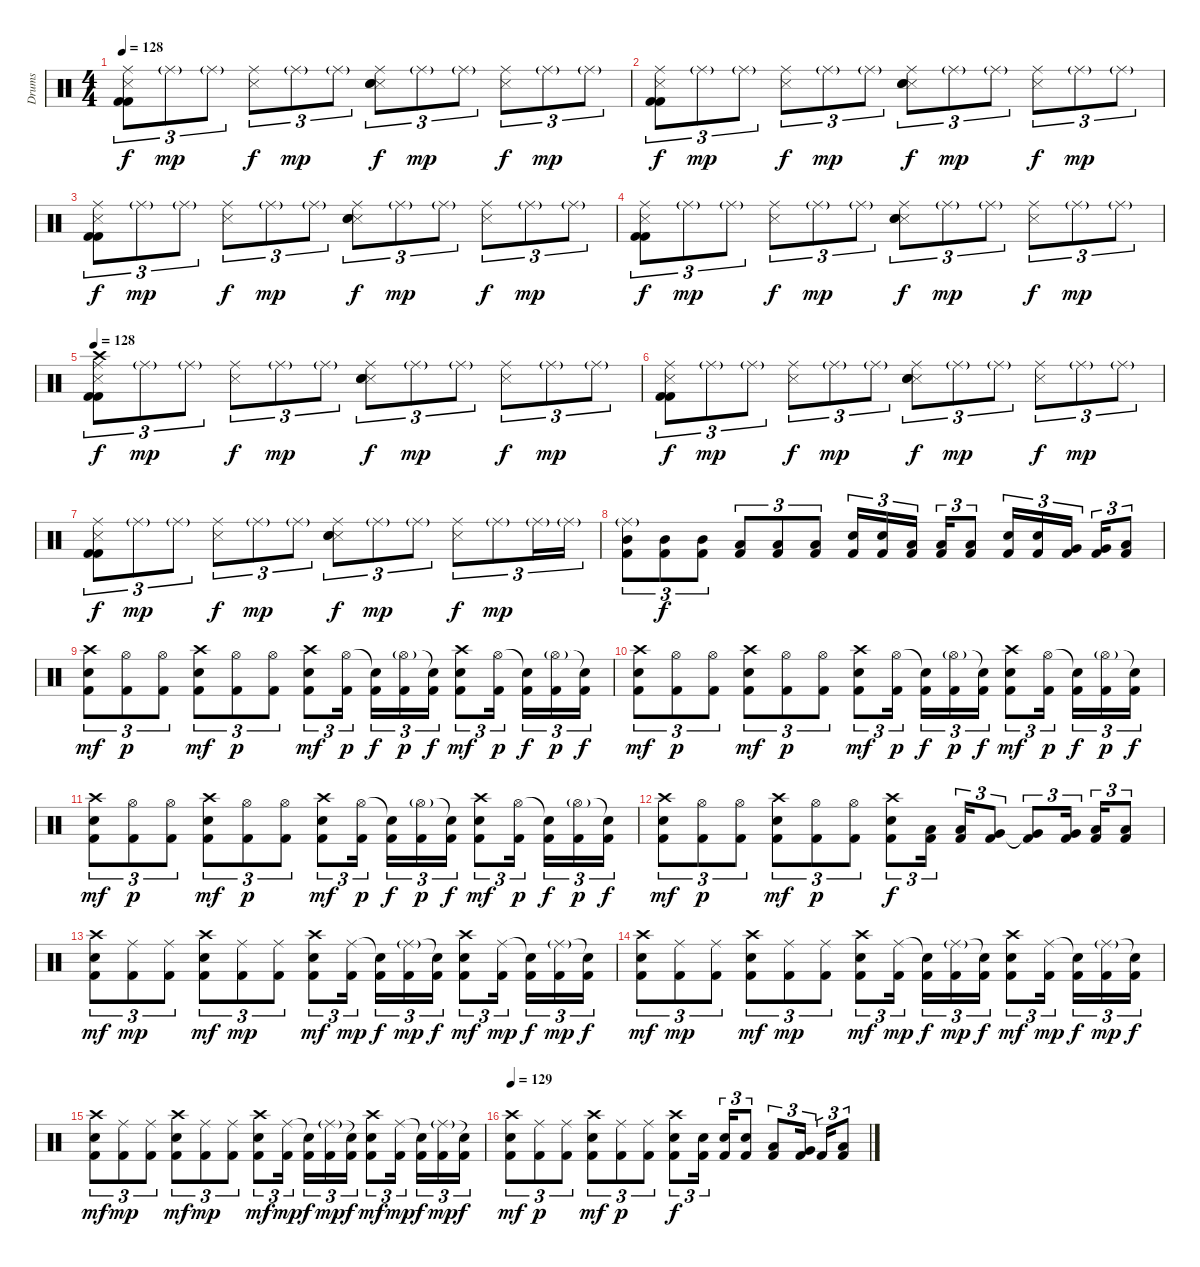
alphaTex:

\track ("Drums" "Drums") {instrument percussion}
\staff {score}
\articulation defaults
\ts (4 4)
\tempo 128
\clef neutral
\ks c
("Ride (middle)" "Metronome (hit)" "Kick (hit) 2" "Kick (hit) 2").8{tu (3 2) dy f} "Ride (middle)"{g}.8{tu (3 2) dy mp} "Ride (middle)"{g}.8{tu (3 2)} ("Ride (middle)" "Metronome (hit)").8{tu (3 2) dy f} "Ride (middle)"{g}.8{tu (3 2) dy mp} "Ride (middle)"{g}.8{tu (3 2)} ("Ride (middle)" "Metronome (hit)" "Electric Snare (hit)" "Snare (hit) 2").8{tu (3 2) dy f} "Ride (middle)"{g}.8{tu (3 2) dy mp} "Ride (middle)"{g}.8{tu (3 2)} ("Ride (middle)" "Metronome (hit)").8{tu (3 2) dy f} "Ride (middle)"{g}.8{tu (3 2) dy mp} "Ride (middle)"{g}.8{tu (3 2)} |
("Ride (middle)" "Metronome (hit)" "Kick (hit) 2" "Kick (hit) 2").8{tu (3 2) dy f} "Ride (middle)"{g}.8{tu (3 2) dy mp} "Ride (middle)"{g}.8{tu (3 2)} ("Ride (middle)" "Metronome (hit)").8{tu (3 2) dy f} "Ride (middle)"{g}.8{tu (3 2) dy mp} "Ride (middle)"{g}.8{tu (3 2)} ("Ride (middle)" "Metronome (hit)" "Electric Snare (hit)" "Snare (hit) 2").8{tu (3 2) dy f} "Ride (middle)"{g}.8{tu (3 2) dy mp} "Ride (middle)"{g}.8{tu (3 2)} ("Ride (middle)" "Metronome (hit)").8{tu (3 2) dy f} "Ride (middle)"{g}.8{tu (3 2) dy mp} "Ride (middle)"{g}.8{tu (3 2)} |
("Ride (middle)" "Metronome (hit)" "Kick (hit) 2" "Kick (hit) 2").8{tu (3 2) dy f} "Ride (middle)"{g}.8{tu (3 2) dy mp} "Ride (middle)"{g}.8{tu (3 2)} ("Ride (middle)" "Metronome (hit)").8{tu (3 2) dy f} "Ride (middle)"{g}.8{tu (3 2) dy mp} "Ride (middle)"{g}.8{tu (3 2)} ("Ride (middle)" "Metronome (hit)" "Electric Snare (hit)" "Snare (hit) 2").8{tu (3 2) dy f} "Ride (middle)"{g}.8{tu (3 2) dy mp} "Ride (middle)"{g}.8{tu (3 2)} ("Ride (middle)" "Metronome (hit)").8{tu (3 2) dy f} "Ride (middle)"{g}.8{tu (3 2) dy mp} "Ride (middle)"{g}.8{tu (3 2)} |
("Ride (middle)" "Metronome (hit)" "Kick (hit) 2" "Kick (hit) 2").8{tu (3 2) dy f} "Ride (middle)"{g}.8{tu (3 2) dy mp} "Ride (middle)"{g}.8{tu (3 2)} ("Ride (middle)" "Metronome (hit)").8{tu (3 2) dy f} "Ride (middle)"{g}.8{tu (3 2) dy mp} "Ride (middle)"{g}.8{tu (3 2)} ("Ride (middle)" "Metronome (hit)" "Electric Snare (hit)" "Snare (hit) 2").8{tu (3 2) dy f} "Ride (middle)"{g}.8{tu (3 2) dy mp} "Ride (middle)"{g}.8{tu (3 2)} ("Ride (middle)" "Metronome (hit)").8{tu (3 2) dy f} "Ride (middle)"{g}.8{tu (3 2) dy mp} "Ride (middle)"{g}.8{tu (3 2)} |
\tempo 128
("Crash high (hit)" "Ride (middle)" "Metronome (hit)" "Kick (hit) 2" "Kick (hit) 2").8{tu (3 2) dy f} "Ride (middle)"{g}.8{tu (3 2) dy mp} "Ride (middle)"{g}.8{tu (3 2)} ("Ride (middle)" "Metronome (hit)").8{tu (3 2) dy f} "Ride (middle)"{g}.8{tu (3 2) dy mp} "Ride (middle)"{g}.8{tu (3 2)} ("Ride (middle)" "Metronome (hit)" "Electric Snare (hit)" "Snare (hit) 2").8{tu (3 2) dy f} "Ride (middle)"{g}.8{tu (3 2) dy mp} "Ride (middle)"{g}.8{tu (3 2)} ("Ride (middle)" "Metronome (hit)").8{tu (3 2) dy f} "Ride (middle)"{g}.8{tu (3 2) dy mp} "Ride (middle)"{g}.8{tu (3 2)} |
("Ride (middle)" "Metronome (hit)" "Kick (hit) 2" "Kick (hit) 2").8{tu (3 2) dy f} "Ride (middle)"{g}.8{tu (3 2) dy mp} "Ride (middle)"{g}.8{tu (3 2)} ("Ride (middle)" "Metronome (hit)").8{tu (3 2) dy f} "Ride (middle)"{g}.8{tu (3 2) dy mp} "Ride (middle)"{g}.8{tu (3 2)} ("Ride (middle)" "Metronome (hit)" "Electric Snare (hit)" "Snare (hit) 2").8{tu (3 2) dy f} "Ride (middle)"{g}.8{tu (3 2) dy mp} "Ride (middle)"{g}.8{tu (3 2)} ("Ride (middle)" "Metronome (hit)").8{tu (3 2) dy f} "Ride (middle)"{g}.8{tu (3 2) dy mp} "Ride (middle)"{g}.8{tu (3 2)} |
("Ride (middle)" "Metronome (hit)" "Kick (hit) 2" "Kick (hit) 2").8{tu (3 2) dy f} "Ride (middle)"{g}.8{tu (3 2) dy mp} "Ride (middle)"{g}.8{tu (3 2)} ("Ride (middle)" "Metronome (hit)").8{tu (3 2) dy f} "Ride (middle)"{g}.8{tu (3 2) dy mp} "Ride (middle)"{g}.8{tu (3 2)} ("Ride (middle)" "Metronome (hit)" "Electric Snare (hit)" "Snare (hit) 2").8{tu (3 2) dy f} "Ride (middle)"{g}.8{tu (3 2) dy mp} "Ride (middle)"{g}.8{tu (3 2)} ("Ride (middle)" "Metronome (hit)").8{tu (3 2) dy f} "Ride (middle)"{g}.8{tu (3 2) dy mp} "Ride (middle)"{g}.16{tu (3 2)} "Ride (middle)"{g}.16{tu (3 2)} |
("Ride (middle)"{g} "Mid Tom (hit)" "Kick (hit) 2").8{tu (3 2)} ("Mid Tom (hit)" "Kick (hit) 2").8{tu (3 2) dy f} ("Mid Tom (hit)" "Kick (hit) 2").8{tu (3 2)} ("Low Tom (hit)" "Kick (hit) 2").8{tu (3 2)} ("Low Tom (hit)" "Kick (hit) 2").8{tu (3 2)} ("Low Tom (hit)" "Kick (hit) 2").8{tu (3 2)} ("Snare (hit) 2" "Kick (hit) 2").16{tu (3 2)} ("Snare (hit) 2" "Kick (hit) 2").16{tu (3 2)} ("Low Tom (hit)" "Kick (hit) 2").16{tu (3 2)} ("Low Tom (hit)" "Kick (hit) 2").16{tu (3 2)} ("Low Tom (hit)" "Kick (hit) 2").8{tu (3 2)} ("Snare (hit) 2" "Kick (hit) 2").16{tu (3 2)} ("Snare (hit) 2" "Kick (hit) 2").16{tu (3 2)} ("Very Low Tom (hit)" "Kick (hit) 2").16{tu (3 2)} ("Very Low Tom (hit)" "Kick (hit) 2").16{tu (3 2)} ("Low Floor Tom (hit)" "Kick (hit) 2").8{tu (3 2)} |
("Crash high (hit)" "Snare (hit) 2" "Kick (hit) 2").8{tu (3 2) dy mf} ("Hi-Hat (open)" "Kick (hit) 2").8{tu (3 2) dy p} ("Hi-Hat (open)" "Kick (hit) 2").8{tu (3 2)} ("Crash high (hit)" "Snare (hit) 2" "Kick (hit) 2").8{tu (3 2) dy mf} ("Hi-Hat (open)" "Kick (hit) 2").8{tu (3 2) dy p} ("Hi-Hat (open)" "Kick (hit) 2").8{tu (3 2)} ("Crash high (hit)" "Snare (hit) 2" "Kick (hit) 2").8{tu (3 2) dy mf} ("Hi-Hat (open)" "Kick (hit) 2").16{tu (3 2) dy p} ("Snare (hit)"{t} "Kick (hit) 2").16{tu (3 2) dy f} ("Hi-Hat (open)"{g} "Kick (hit) 2").16{tu (3 2) dy p} ("Snare (hit)"{t} "Kick (hit) 2").16{tu (3 2) dy f} ("Crash high (hit)" "Snare (hit) 2" "Kick (hit) 2").8{tu (3 2) dy mf} ("Hi-Hat (open)" "Kick (hit) 2").16{tu (3 2) dy p} ("Snare (hit)"{t} "Kick (hit) 2").16{tu (3 2) dy f} ("Hi-Hat (open)"{g} "Kick (hit) 2").16{tu (3 2) dy p} ("Snare (hit)"{t} "Kick (hit) 2").16{tu (3 2) dy f} |
("Crash high (hit)" "Snare (hit) 2" "Kick (hit) 2").8{tu (3 2) dy mf} ("Hi-Hat (open)" "Kick (hit) 2").8{tu (3 2) dy p} ("Hi-Hat (open)" "Kick (hit) 2").8{tu (3 2)} ("Crash high (hit)" "Snare (hit) 2" "Kick (hit) 2").8{tu (3 2) dy mf} ("Hi-Hat (open)" "Kick (hit) 2").8{tu (3 2) dy p} ("Hi-Hat (open)" "Kick (hit) 2").8{tu (3 2)} ("Crash high (hit)" "Snare (hit) 2" "Kick (hit) 2").8{tu (3 2) dy mf} ("Hi-Hat (open)" "Kick (hit) 2").16{tu (3 2) dy p} ("Snare (hit)"{t} "Kick (hit) 2").16{tu (3 2) dy f} ("Hi-Hat (open)"{g} "Kick (hit) 2").16{tu (3 2) dy p} ("Snare (hit)"{t} "Kick (hit) 2").16{tu (3 2) dy f} ("Crash high (hit)" "Snare (hit) 2" "Kick (hit) 2").8{tu (3 2) dy mf} ("Hi-Hat (open)" "Kick (hit) 2").16{tu (3 2) dy p} ("Snare (hit)"{t} "Kick (hit) 2").16{tu (3 2) dy f} ("Hi-Hat (open)"{g} "Kick (hit) 2").16{tu (3 2) dy p} ("Snare (hit)"{t} "Kick (hit) 2").16{tu (3 2) dy f} |
("Crash high (hit)" "Snare (hit) 2" "Kick (hit) 2").8{tu (3 2) dy mf} ("Hi-Hat (open)" "Kick (hit) 2").8{tu (3 2) dy p} ("Hi-Hat (open)" "Kick (hit) 2").8{tu (3 2)} ("Crash high (hit)" "Snare (hit) 2" "Kick (hit) 2").8{tu (3 2) dy mf} ("Hi-Hat (open)" "Kick (hit) 2").8{tu (3 2) dy p} ("Hi-Hat (open)" "Kick (hit) 2").8{tu (3 2)} ("Crash high (hit)" "Snare (hit) 2" "Kick (hit) 2").8{tu (3 2) dy mf} ("Hi-Hat (open)" "Kick (hit) 2").16{tu (3 2) dy p} ("Snare (hit)"{t} "Kick (hit) 2").16{tu (3 2) dy f} ("Hi-Hat (open)"{g} "Kick (hit) 2").16{tu (3 2) dy p} ("Snare (hit)"{t} "Kick (hit) 2").16{tu (3 2) dy f} ("Crash high (hit)" "Snare (hit) 2" "Kick (hit) 2").8{tu (3 2) dy mf} ("Hi-Hat (open)" "Kick (hit) 2").16{tu (3 2) dy p} ("Snare (hit)"{t} "Kick (hit) 2").16{tu (3 2) dy f} ("Hi-Hat (open)"{g} "Kick (hit) 2").16{tu (3 2) dy p} ("Snare (hit)"{t} "Kick (hit) 2").16{tu (3 2) dy f} |
("Crash high (hit)" "Snare (hit) 2" "Kick (hit) 2").8{tu (3 2) dy mf} ("Hi-Hat (open)" "Kick (hit) 2").8{tu (3 2) dy p} ("Hi-Hat (open)" "Kick (hit) 2").8{tu (3 2)} ("Crash high (hit)" "Snare (hit) 2" "Kick (hit) 2").8{tu (3 2) dy mf} ("Hi-Hat (open)" "Kick (hit) 2").8{tu (3 2) dy p} ("Hi-Hat (open)" "Kick (hit) 2").8{tu (3 2)} ("Crash high (hit)" "Snare (hit) 2" "Kick (hit) 2").8{tu (3 2) dy f} ("Low Tom (hit)" "Kick (hit) 2").16{tu (3 2)} ("Low Tom (hit)" "Kick (hit) 2").16{tu (3 2)} ("Very Low Tom (hit)" "Kick (hit) 2").8{tu (3 2)} ("Very Low Tom (hit)"{t} "Kick (hit) 2").8{tu (3 2)} ("Very Low Tom (hit)" "Kick (hit) 2").16{tu (3 2)} ("Low Floor Tom (hit)" "Kick (hit) 2").16{tu (3 2)} ("Low Floor Tom (hit)" "Kick (hit) 2").8{tu (3 2)} |
("Crash high (hit)" "Snare (hit) 2" "Kick (hit) 2").8{tu (3 2) dy mf} ("Ride (middle)" "Kick (hit) 2").8{tu (3 2) dy mp} ("Ride (middle)" "Kick (hit) 2").8{tu (3 2)} ("Crash high (hit)" "Snare (hit) 2" "Kick (hit) 2").8{tu (3 2) dy mf} ("Ride (middle)" "Kick (hit) 2").8{tu (3 2) dy mp} ("Ride (middle)" "Kick (hit) 2").8{tu (3 2)} ("Crash high (hit)" "Snare (hit) 2" "Kick (hit) 2").8{tu (3 2) dy mf} ("Ride (middle)" "Kick (hit) 2").16{tu (3 2) dy mp} ("Snare (hit)"{t} "Kick (hit) 2").16{tu (3 2) dy f} ("Ride (middle)"{g} "Kick (hit) 2").16{tu (3 2) dy mp} ("Snare (hit)"{t} "Kick (hit) 2").16{tu (3 2) dy f} ("Crash high (hit)" "Snare (hit) 2" "Kick (hit) 2").8{tu (3 2) dy mf} ("Ride (middle)" "Kick (hit) 2").16{tu (3 2) dy mp} ("Snare (hit)"{t} "Kick (hit) 2").16{tu (3 2) dy f} ("Ride (middle)"{g} "Kick (hit) 2").16{tu (3 2) dy mp} ("Snare (hit)"{t} "Kick (hit) 2").16{tu (3 2) dy f} |
("Crash high (hit)" "Snare (hit) 2" "Kick (hit) 2").8{tu (3 2) dy mf} ("Ride (middle)" "Kick (hit) 2").8{tu (3 2) dy mp} ("Ride (middle)" "Kick (hit) 2").8{tu (3 2)} ("Crash high (hit)" "Snare (hit) 2" "Kick (hit) 2").8{tu (3 2) dy mf} ("Ride (middle)" "Kick (hit) 2").8{tu (3 2) dy mp} ("Ride (middle)" "Kick (hit) 2").8{tu (3 2)} ("Crash high (hit)" "Snare (hit) 2" "Kick (hit) 2").8{tu (3 2) dy mf} ("Ride (middle)" "Kick (hit) 2").16{tu (3 2) dy mp} ("Snare (hit)"{t} "Kick (hit) 2").16{tu (3 2) dy f} ("Ride (middle)"{g} "Kick (hit) 2").16{tu (3 2) dy mp} ("Snare (hit)"{t} "Kick (hit) 2").16{tu (3 2) dy f} ("Crash high (hit)" "Snare (hit) 2" "Kick (hit) 2").8{tu (3 2) dy mf} ("Ride (middle)" "Kick (hit) 2").16{tu (3 2) dy mp} ("Snare (hit)"{t} "Kick (hit) 2").16{tu (3 2) dy f} ("Ride (middle)"{g} "Kick (hit) 2").16{tu (3 2) dy mp} ("Snare (hit)"{t} "Kick (hit) 2").16{tu (3 2) dy f} |
("Crash high (hit)" "Snare (hit) 2" "Kick (hit) 2").8{tu (3 2) dy mf} ("Ride (middle)" "Kick (hit) 2").8{tu (3 2) dy mp} ("Ride (middle)" "Kick (hit) 2").8{tu (3 2)} ("Crash high (hit)" "Snare (hit) 2" "Kick (hit) 2").8{tu (3 2) dy mf} ("Ride (middle)" "Kick (hit) 2").8{tu (3 2) dy mp} ("Ride (middle)" "Kick (hit) 2").8{tu (3 2)} ("Crash high (hit)" "Snare (hit) 2" "Kick (hit) 2").8{tu (3 2) dy mf} ("Ride (middle)" "Kick (hit) 2").16{tu (3 2) dy mp} ("Snare (hit)"{t} "Kick (hit) 2").16{tu (3 2) dy f} ("Ride (middle)"{g} "Kick (hit) 2").16{tu (3 2) dy mp} ("Snare (hit)"{t} "Kick (hit) 2").16{tu (3 2) dy f} ("Crash high (hit)" "Snare (hit) 2" "Kick (hit) 2").8{tu (3 2) dy mf} ("Ride (middle)" "Kick (hit) 2").16{tu (3 2) dy mp} ("Snare (hit)"{t} "Kick (hit) 2").16{tu (3 2) dy f} ("Ride (middle)"{g} "Kick (hit) 2").16{tu (3 2) dy mp} ("Snare (hit)"{t} "Kick (hit) 2").16{tu (3 2) dy f} |
\tempo 129
("Crash high (hit)" "Snare (hit) 2" "Kick (hit) 2").8{tu (3 2) dy mf} ("Ride (middle)" "Kick (hit) 2").8{tu (3 2) dy p} ("Ride (middle)" "Kick (hit) 2").8{tu (3 2)} ("Crash high (hit)" "Snare (hit) 2" "Kick (hit) 2").8{tu (3 2) dy mf} ("Ride (middle)" "Kick (hit) 2").8{tu (3 2) dy p} ("Ride (middle)" "Kick (hit) 2").8{tu (3 2)} ("Crash high (hit)" "Snare (hit) 2" "Kick (hit) 2").8{tu (3 2) dy f} ("Snare (hit) 2" "Kick (hit) 2").16{tu (3 2)} ("Snare (hit) 2" "Kick (hit) 2").16{tu (3 2)} ("Snare (hit) 2" "Kick (hit) 2").8{tu (3 2)} ("Low Tom (hit)" "Kick (hit) 2").8{tu (3 2)} ("Very Low Tom (hit)" "Kick (hit) 2").16{tu (3 2)} "Kick (hit) 2".16{tu (3 2)} ("Low Floor Tom (hit)" "Kick (hit) 2").8{tu (3 2)}
